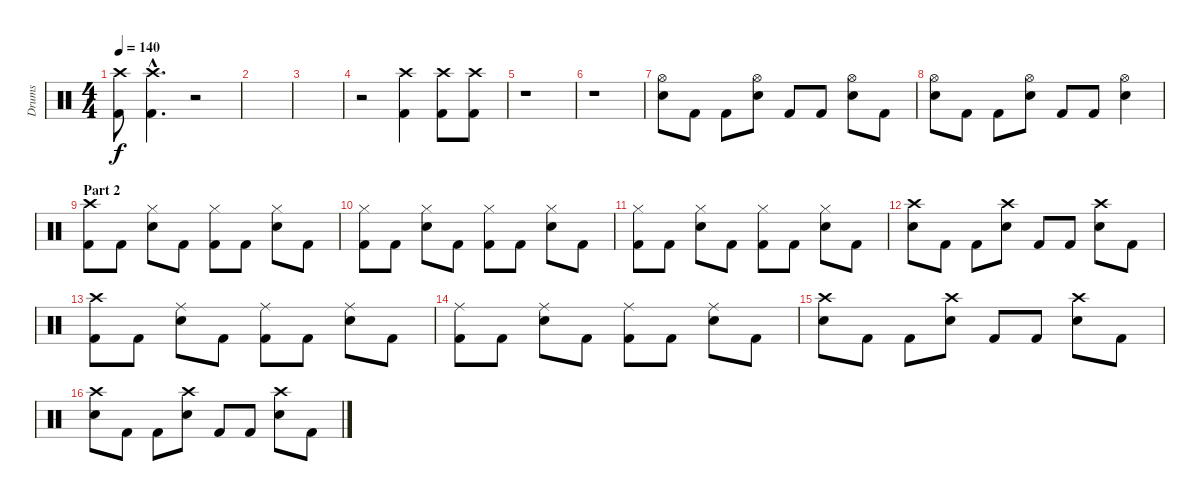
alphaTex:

\track ("Drums" "Drums") {instrument percussion}
\staff {score}
\articulation defaults
\ts (4 4)
\tempo 140
\clef neutral
\ks c
("Crash high (hit)" "Kick (hit) 2").8{dy f} ("Crash high (hit)"{hac} "Kick (hit) 2"{hac}).4{d} r.2 |
|
|
r.2 ("Crash high (hit)" "Kick (hit) 2").4 ("Crash high (hit)" "Kick (hit) 2").8 ("Crash high (hit)" "Kick (hit) 2").8 |
r.1 |
r.1 |
("Hi-Hat (open)" "Electric Snare (hit)").8 "Kick (hit) 2".8 "Kick (hit) 2".8 ("Hi-Hat (open)" "Electric Snare (hit)").8 "Kick (hit) 2".8 "Kick (hit) 2".8 ("Hi-Hat (open)" "Electric Snare (hit)").8 "Kick (hit) 2".8 |
("Hi-Hat (open)" "Electric Snare (hit)").8 "Kick (hit) 2".8 "Kick (hit) 2".8 ("Hi-Hat (open)" "Electric Snare (hit)").8 "Kick (hit) 2".8 "Kick (hit) 2".8 ("Hi-Hat (open)" "Electric Snare (hit)").4 |
\section ("" "Part 2")
("Crash high (hit)" "Kick (hit) 2").8 "Kick (hit) 2".8 ("Hi-Hat (closed)" "Electric Snare (hit)").8 "Kick (hit) 2".8 ("Hi-Hat (closed)" "Kick (hit) 2").8 "Kick (hit) 2".8 ("Hi-Hat (closed)" "Electric Snare (hit)").8 "Kick (hit) 2".8 |
("Hi-Hat (closed)" "Kick (hit) 2").8 "Kick (hit) 2".8 ("Hi-Hat (closed)" "Electric Snare (hit)").8 "Kick (hit) 2".8 ("Hi-Hat (closed)" "Kick (hit) 2").8 "Kick (hit) 2".8 ("Hi-Hat (closed)" "Electric Snare (hit)").8 "Kick (hit) 2".8 |
("Hi-Hat (closed)" "Kick (hit) 2").8 "Kick (hit) 2".8 ("Hi-Hat (closed)" "Electric Snare (hit)").8 "Kick (hit) 2".8 ("Hi-Hat (closed)" "Kick (hit) 2").8 "Kick (hit) 2".8 ("Hi-Hat (closed)" "Electric Snare (hit)").8 "Kick (hit) 2".8 |
("Crash high (hit)" "Electric Snare (hit)").8 "Kick (hit) 2".8 "Kick (hit) 2".8 ("Crash high (hit)" "Electric Snare (hit)").8 "Kick (hit) 2".8 "Kick (hit) 2".8 ("Crash high (hit)" "Electric Snare (hit)").8 "Kick (hit) 2".8 |
("Crash high (hit)" "Kick (hit) 2").8 "Kick (hit) 2".8 ("Ride (middle)" "Electric Snare (hit)").8 "Kick (hit) 2".8 ("Ride (middle)" "Kick (hit) 2").8 "Kick (hit) 2".8 ("Ride (middle)" "Electric Snare (hit)").8 "Kick (hit) 2".8 |
("Ride (middle)" "Kick (hit) 2").8 "Kick (hit) 2".8 ("Ride (middle)" "Electric Snare (hit)").8 "Kick (hit) 2".8 ("Ride (middle)" "Kick (hit) 2").8 "Kick (hit) 2".8 ("Ride (middle)" "Electric Snare (hit)").8 "Kick (hit) 2".8 |
("Crash high (hit)" "Electric Snare (hit)").8 "Kick (hit) 2".8 "Kick (hit) 2".8 ("Crash high (hit)" "Electric Snare (hit)").8 "Kick (hit) 2".8 "Kick (hit) 2".8 ("Crash high (hit)" "Electric Snare (hit)").8 "Kick (hit) 2".8 |
("Crash high (hit)" "Electric Snare (hit)").8 "Kick (hit) 2".8 "Kick (hit) 2".8 ("Crash high (hit)" "Electric Snare (hit)").8 "Kick (hit) 2".8 "Kick (hit) 2".8 ("Crash high (hit)" "Electric Snare (hit)").8 "Kick (hit) 2".8
